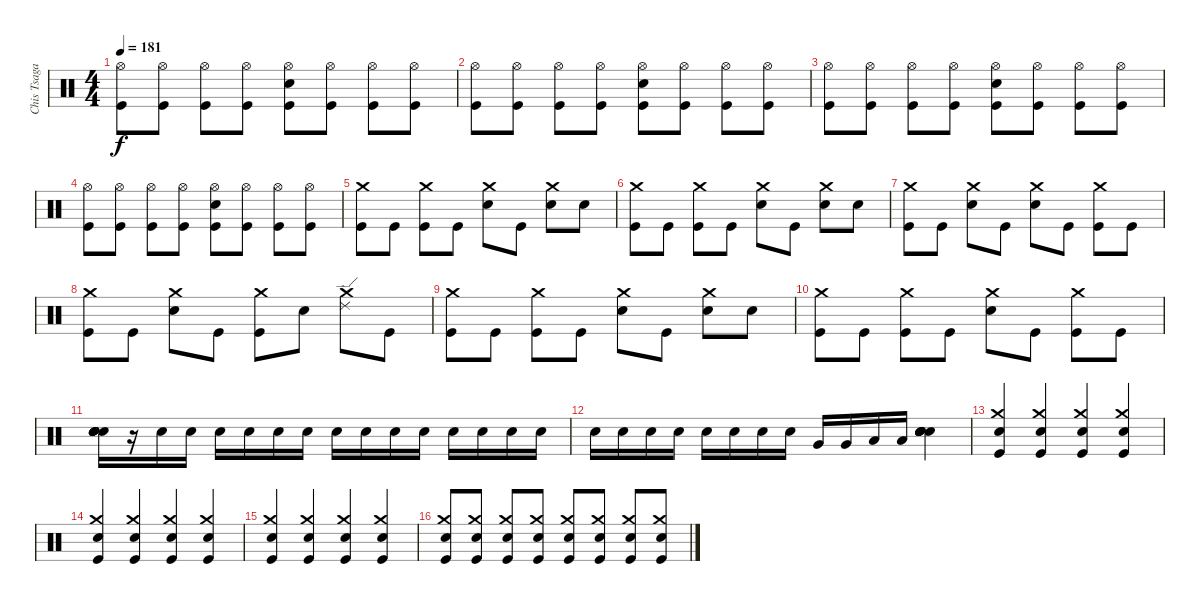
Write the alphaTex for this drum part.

\track ("Chis Tsagakis" "Chis Tsaga") {instrument percussion}
\staff {score}
\articulation defaults
\ts (4 4)
\tempo 181
\clef neutral
\ks c
("Hi-Hat (open)" "Kick (hit)").8{dy f} ("Hi-Hat (open)" "Kick (hit)").8 ("Hi-Hat (open)" "Kick (hit)").8 ("Hi-Hat (open)" "Kick (hit)").8 ("Hi-Hat (open)" "Electric Snare (hit)" "Kick (hit)").8 ("Hi-Hat (open)" "Kick (hit)").8 ("Hi-Hat (open)" "Kick (hit)").8 ("Hi-Hat (open)" "Kick (hit)").8 |
("Hi-Hat (open)" "Kick (hit)").8 ("Hi-Hat (open)" "Kick (hit)").8 ("Hi-Hat (open)" "Kick (hit)").8 ("Hi-Hat (open)" "Kick (hit)").8 ("Hi-Hat (open)" "Electric Snare (hit)" "Kick (hit)").8 ("Hi-Hat (open)" "Kick (hit)").8 ("Hi-Hat (open)" "Kick (hit)").8 ("Hi-Hat (open)" "Kick (hit)").8 |
("Hi-Hat (open)" "Kick (hit)").8 ("Hi-Hat (open)" "Kick (hit)").8 ("Hi-Hat (open)" "Kick (hit)").8 ("Hi-Hat (open)" "Kick (hit)").8 ("Hi-Hat (open)" "Electric Snare (hit)" "Kick (hit)").8 ("Hi-Hat (open)" "Kick (hit)").8 ("Hi-Hat (open)" "Kick (hit)").8 ("Hi-Hat (open)" "Kick (hit)").8 |
("Hi-Hat (open)" "Kick (hit)").8 ("Hi-Hat (open)" "Kick (hit)").8 ("Hi-Hat (open)" "Kick (hit)").8 ("Hi-Hat (open)" "Kick (hit)").8 ("Hi-Hat (open)" "Electric Snare (hit)" "Kick (hit)").8 ("Hi-Hat (open)" "Kick (hit)").8 ("Hi-Hat (open)" "Kick (hit)").8 ("Hi-Hat (open)" "Kick (hit)").8 |
("Crash medium (hit)" "Kick (hit)").8 "Kick (hit)".8 ("Crash medium (hit)" "Kick (hit)").8 "Kick (hit)".8 ("Crash medium (hit)" "Electric Snare (hit)").8 "Kick (hit)".8 ("Crash medium (hit)" "Electric Snare (hit)").8 "Electric Snare (hit)".8 |
("Crash medium (hit)" "Kick (hit)").8 "Kick (hit)".8 ("Crash medium (hit)" "Kick (hit)").8 "Kick (hit)".8 ("Crash medium (hit)" "Electric Snare (hit)").8 "Kick (hit)".8 ("Crash medium (hit)" "Electric Snare (hit)").8 "Electric Snare (hit)".8 |
("Crash medium (hit)" "Kick (hit)").8 "Kick (hit)".8 ("Crash medium (hit)" "Electric Snare (hit)").8 "Kick (hit)".8 ("Crash medium (hit)" "Electric Snare (hit)").8 "Kick (hit)".8 ("Crash medium (hit)" "Kick (hit)").8 "Kick (hit)".8 |
("Crash medium (hit)" "Kick (hit)").8 "Kick (hit)".8 ("Crash medium (hit)" "Electric Snare (hit)").8 "Kick (hit)".8 ("Crash medium (hit)" "Kick (hit)").8 "Electric Snare (hit)".8 ("Crash medium (hit)" "Ride (edge) 2").8 "Kick (hit)".8 |
("Crash medium (hit)" "Kick (hit)").8 "Kick (hit)".8 ("Crash medium (hit)" "Kick (hit)").8 "Kick (hit)".8 ("Crash medium (hit)" "Electric Snare (hit)").8 "Kick (hit)".8 ("Crash medium (hit)" "Electric Snare (hit)").8 "Electric Snare (hit)".8 |
("Crash medium (hit)" "Kick (hit)").8 "Kick (hit)".8 ("Crash medium (hit)" "Kick (hit)").8 "Kick (hit)".8 ("Crash medium (hit)" "Electric Snare (hit)").8 "Kick (hit)".8 ("Crash medium (hit)" "Kick (hit)").8 "Kick (hit)".8 |
("Snare (hit) 2" "Electric Snare (hit)" "Electric Snare (hit)" "Electric Snare (hit)" "Snare (hit) 2").16 r.16{volume 4} "Electric Snare (hit)".16{volume 13} "Electric Snare (hit)".16 "Electric Snare (hit)".16 "Electric Snare (hit)".16 "Electric Snare (hit)".16 "Electric Snare (hit)".16 "Electric Snare (hit)".16 "Electric Snare (hit)".16 "Electric Snare (hit)".16 "Electric Snare (hit)".16 "Electric Snare (hit)".16 "Electric Snare (hit)".16 "Electric Snare (hit)".16 "Electric Snare (hit)".16 |
"Electric Snare (hit)".16 "Electric Snare (hit)".16 "Electric Snare (hit)".16 "Electric Snare (hit)".16 "Electric Snare (hit)".16 "Electric Snare (hit)".16 "Electric Snare (hit)".16 "Electric Snare (hit)".16 "Very Low Tom (hit)".16 "Very Low Tom (hit)".16 "Low Floor Tom (hit)".16 "Low Floor Tom (hit)".16 ("Snare (hit) 2" "Electric Snare (hit)" "Electric Snare (hit)" "Electric Snare (hit)" "Snare (hit) 2").4 |
("Crash medium (hit)" "Snare (hit) 2" "Kick (hit)").4 ("Crash medium (hit)" "Snare (hit) 2" "Kick (hit)").4 ("Crash medium (hit)" "Snare (hit) 2" "Kick (hit)").4 ("Crash medium (hit)" "Snare (hit) 2" "Kick (hit)").4 |
("Crash medium (hit)" "Snare (hit) 2" "Kick (hit)").4 ("Crash medium (hit)" "Snare (hit) 2" "Kick (hit)").4 ("Crash medium (hit)" "Snare (hit) 2" "Kick (hit)").4 ("Crash medium (hit)" "Snare (hit) 2" "Kick (hit)").4 |
("Crash medium (hit)" "Snare (hit) 2" "Kick (hit)").4 ("Crash medium (hit)" "Snare (hit) 2" "Kick (hit)").4 ("Crash medium (hit)" "Snare (hit) 2" "Kick (hit)").4 ("Crash medium (hit)" "Snare (hit) 2" "Kick (hit)").4 |
("Crash medium (hit)" "Snare (hit) 2" "Kick (hit)").8 ("Crash medium (hit)" "Snare (hit) 2" "Kick (hit)").8 ("Crash medium (hit)" "Snare (hit) 2" "Kick (hit)").8 ("Crash medium (hit)" "Snare (hit) 2" "Kick (hit)").8 ("Crash medium (hit)" "Snare (hit) 2" "Kick (hit)").8 ("Crash medium (hit)" "Snare (hit) 2" "Kick (hit)").8 ("Crash medium (hit)" "Snare (hit) 2" "Kick (hit)").8 ("Crash medium (hit)" "Snare (hit) 2" "Kick (hit)").8
